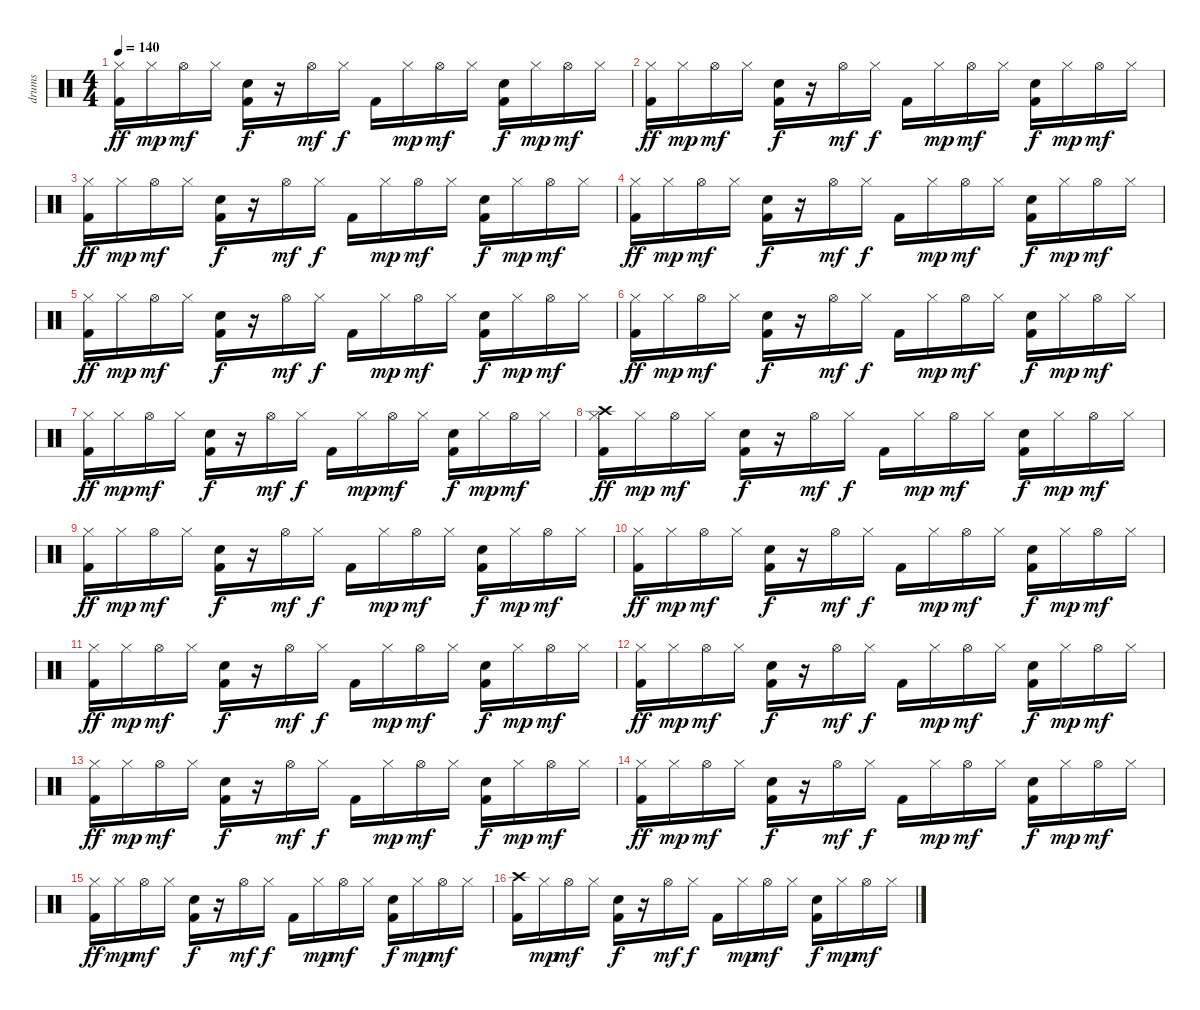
\track ("drums" "drums") {instrument percussion}
\staff {score}
\articulation defaults
\ts (4 4)
\tempo 140
\clef neutral
\ks c
("Kick (hit) 2" "Hi-Hat (closed)").16{dy ff} "Hi-Hat (closed)".16{dy mp} "Hi-Hat (open)".16{dy mf} "Hi-Hat (closed)".16 ("Kick (hit) 2" "Hand Clap (hit)").16{dy f} r.16 "Hi-Hat (open)".16{dy mf} "Hi-Hat (closed)".16{dy f} "Kick (hit) 2".16 "Hi-Hat (closed)".16{dy mp} "Hi-Hat (open)".16{dy mf} "Hi-Hat (closed)".16 ("Kick (hit) 2" "Hand Clap (hit)").16{dy f} "Hi-Hat (closed)".16{dy mp} "Hi-Hat (open)".16{dy mf} "Hi-Hat (closed)".16 |
("Kick (hit) 2" "Hi-Hat (closed)").16{dy ff} "Hi-Hat (closed)".16{dy mp} "Hi-Hat (open)".16{dy mf} "Hi-Hat (closed)".16 ("Kick (hit) 2" "Hand Clap (hit)").16{dy f} r.16 "Hi-Hat (open)".16{dy mf} "Hi-Hat (closed)".16{dy f} "Kick (hit) 2".16 "Hi-Hat (closed)".16{dy mp} "Hi-Hat (open)".16{dy mf} "Hi-Hat (closed)".16 ("Kick (hit) 2" "Hand Clap (hit)").16{dy f} "Hi-Hat (closed)".16{dy mp} "Hi-Hat (open)".16{dy mf} "Hi-Hat (closed)".16 |
("Kick (hit) 2" "Hi-Hat (closed)").16{dy ff} "Hi-Hat (closed)".16{dy mp} "Hi-Hat (open)".16{dy mf} "Hi-Hat (closed)".16 ("Kick (hit) 2" "Hand Clap (hit)").16{dy f} r.16 "Hi-Hat (open)".16{dy mf} "Hi-Hat (closed)".16{dy f} "Kick (hit) 2".16 "Hi-Hat (closed)".16{dy mp} "Hi-Hat (open)".16{dy mf} "Hi-Hat (closed)".16 ("Kick (hit) 2" "Hand Clap (hit)").16{dy f} "Hi-Hat (closed)".16{dy mp} "Hi-Hat (open)".16{dy mf} "Hi-Hat (closed)".16 |
("Kick (hit) 2" "Hi-Hat (closed)").16{dy ff} "Hi-Hat (closed)".16{dy mp} "Hi-Hat (open)".16{dy mf} "Hi-Hat (closed)".16 ("Kick (hit) 2" "Hand Clap (hit)").16{dy f} r.16 "Hi-Hat (open)".16{dy mf} "Hi-Hat (closed)".16{dy f} "Kick (hit) 2".16 "Hi-Hat (closed)".16{dy mp} "Hi-Hat (open)".16{dy mf} "Hi-Hat (closed)".16 ("Kick (hit) 2" "Hand Clap (hit)").16{dy f} "Hi-Hat (closed)".16{dy mp} "Hi-Hat (open)".16{dy mf} "Hi-Hat (closed)".16 |
("Kick (hit) 2" "Hi-Hat (closed)").16{dy ff} "Hi-Hat (closed)".16{dy mp} "Hi-Hat (open)".16{dy mf} "Hi-Hat (closed)".16 ("Kick (hit) 2" "Hand Clap (hit)").16{dy f} r.16 "Hi-Hat (open)".16{dy mf} "Hi-Hat (closed)".16{dy f} "Kick (hit) 2".16 "Hi-Hat (closed)".16{dy mp} "Hi-Hat (open)".16{dy mf} "Hi-Hat (closed)".16 ("Kick (hit) 2" "Hand Clap (hit)").16{dy f} "Hi-Hat (closed)".16{dy mp} "Hi-Hat (open)".16{dy mf} "Hi-Hat (closed)".16 |
("Kick (hit) 2" "Hi-Hat (closed)").16{dy ff} "Hi-Hat (closed)".16{dy mp} "Hi-Hat (open)".16{dy mf} "Hi-Hat (closed)".16 ("Kick (hit) 2" "Hand Clap (hit)").16{dy f} r.16 "Hi-Hat (open)".16{dy mf} "Hi-Hat (closed)".16{dy f} "Kick (hit) 2".16 "Hi-Hat (closed)".16{dy mp} "Hi-Hat (open)".16{dy mf} "Hi-Hat (closed)".16 ("Kick (hit) 2" "Hand Clap (hit)").16{dy f} "Hi-Hat (closed)".16{dy mp} "Hi-Hat (open)".16{dy mf} "Hi-Hat (closed)".16 |
("Kick (hit) 2" "Hi-Hat (closed)").16{dy ff} "Hi-Hat (closed)".16{dy mp} "Hi-Hat (open)".16{dy mf} "Hi-Hat (closed)".16 ("Kick (hit) 2" "Hand Clap (hit)").16{dy f} r.16 "Hi-Hat (open)".16{dy mf} "Hi-Hat (closed)".16{dy f} "Kick (hit) 2".16 "Hi-Hat (closed)".16{dy mp} "Hi-Hat (open)".16{dy mf} "Hi-Hat (closed)".16 ("Kick (hit) 2" "Hand Clap (hit)").16{dy f} "Hi-Hat (closed)".16{dy mp} "Hi-Hat (open)".16{dy mf} "Hi-Hat (closed)".16 |
("Kick (hit) 2" "Crash high (hit)" "Hi-Hat (closed)").16{dy ff} "Hi-Hat (closed)".16{dy mp} "Hi-Hat (open)".16{dy mf} "Hi-Hat (closed)".16 ("Kick (hit) 2" "Hand Clap (hit)").16{dy f} r.16 "Hi-Hat (open)".16{dy mf} "Hi-Hat (closed)".16{dy f} "Kick (hit) 2".16 "Hi-Hat (closed)".16{dy mp} "Hi-Hat (open)".16{dy mf} "Hi-Hat (closed)".16 ("Kick (hit) 2" "Hand Clap (hit)").16{dy f} "Hi-Hat (closed)".16{dy mp} "Hi-Hat (open)".16{dy mf} "Hi-Hat (closed)".16 |
("Kick (hit) 2" "Hi-Hat (closed)").16{dy ff} "Hi-Hat (closed)".16{dy mp} "Hi-Hat (open)".16{dy mf} "Hi-Hat (closed)".16 ("Kick (hit) 2" "Hand Clap (hit)").16{dy f} r.16 "Hi-Hat (open)".16{dy mf} "Hi-Hat (closed)".16{dy f} "Kick (hit) 2".16 "Hi-Hat (closed)".16{dy mp} "Hi-Hat (open)".16{dy mf} "Hi-Hat (closed)".16 ("Kick (hit) 2" "Hand Clap (hit)").16{dy f} "Hi-Hat (closed)".16{dy mp} "Hi-Hat (open)".16{dy mf} "Hi-Hat (closed)".16 |
("Kick (hit) 2" "Hi-Hat (closed)").16{dy ff} "Hi-Hat (closed)".16{dy mp} "Hi-Hat (open)".16{dy mf} "Hi-Hat (closed)".16 ("Kick (hit) 2" "Hand Clap (hit)").16{dy f} r.16 "Hi-Hat (open)".16{dy mf} "Hi-Hat (closed)".16{dy f} "Kick (hit) 2".16 "Hi-Hat (closed)".16{dy mp} "Hi-Hat (open)".16{dy mf} "Hi-Hat (closed)".16 ("Kick (hit) 2" "Hand Clap (hit)").16{dy f} "Hi-Hat (closed)".16{dy mp} "Hi-Hat (open)".16{dy mf} "Hi-Hat (closed)".16 |
("Kick (hit) 2" "Hi-Hat (closed)").16{dy ff} "Hi-Hat (closed)".16{dy mp} "Hi-Hat (open)".16{dy mf} "Hi-Hat (closed)".16 ("Kick (hit) 2" "Hand Clap (hit)").16{dy f} r.16 "Hi-Hat (open)".16{dy mf} "Hi-Hat (closed)".16{dy f} "Kick (hit) 2".16 "Hi-Hat (closed)".16{dy mp} "Hi-Hat (open)".16{dy mf} "Hi-Hat (closed)".16 ("Kick (hit) 2" "Hand Clap (hit)").16{dy f} "Hi-Hat (closed)".16{dy mp} "Hi-Hat (open)".16{dy mf} "Hi-Hat (closed)".16 |
("Kick (hit) 2" "Hi-Hat (closed)").16{dy ff} "Hi-Hat (closed)".16{dy mp} "Hi-Hat (open)".16{dy mf} "Hi-Hat (closed)".16 ("Kick (hit) 2" "Hand Clap (hit)").16{dy f} r.16 "Hi-Hat (open)".16{dy mf} "Hi-Hat (closed)".16{dy f} "Kick (hit) 2".16 "Hi-Hat (closed)".16{dy mp} "Hi-Hat (open)".16{dy mf} "Hi-Hat (closed)".16 ("Kick (hit) 2" "Hand Clap (hit)").16{dy f} "Hi-Hat (closed)".16{dy mp} "Hi-Hat (open)".16{dy mf} "Hi-Hat (closed)".16 |
("Kick (hit) 2" "Hi-Hat (closed)").16{dy ff} "Hi-Hat (closed)".16{dy mp} "Hi-Hat (open)".16{dy mf} "Hi-Hat (closed)".16 ("Kick (hit) 2" "Hand Clap (hit)").16{dy f} r.16 "Hi-Hat (open)".16{dy mf} "Hi-Hat (closed)".16{dy f} "Kick (hit) 2".16 "Hi-Hat (closed)".16{dy mp} "Hi-Hat (open)".16{dy mf} "Hi-Hat (closed)".16 ("Kick (hit) 2" "Hand Clap (hit)").16{dy f} "Hi-Hat (closed)".16{dy mp} "Hi-Hat (open)".16{dy mf} "Hi-Hat (closed)".16 |
("Kick (hit) 2" "Hi-Hat (closed)").16{dy ff} "Hi-Hat (closed)".16{dy mp} "Hi-Hat (open)".16{dy mf} "Hi-Hat (closed)".16 ("Kick (hit) 2" "Hand Clap (hit)").16{dy f} r.16 "Hi-Hat (open)".16{dy mf} "Hi-Hat (closed)".16{dy f} "Kick (hit) 2".16 "Hi-Hat (closed)".16{dy mp} "Hi-Hat (open)".16{dy mf} "Hi-Hat (closed)".16 ("Kick (hit) 2" "Hand Clap (hit)").16{dy f} "Hi-Hat (closed)".16{dy mp} "Hi-Hat (open)".16{dy mf} "Hi-Hat (closed)".16 |
("Kick (hit) 2" "Hi-Hat (closed)").16{dy ff} "Hi-Hat (closed)".16{dy mp} "Hi-Hat (open)".16{dy mf} "Hi-Hat (closed)".16 ("Kick (hit) 2" "Hand Clap (hit)").16{dy f} r.16 "Hi-Hat (open)".16{dy mf} "Hi-Hat (closed)".16{dy f} "Kick (hit) 2".16 "Hi-Hat (closed)".16{dy mp} "Hi-Hat (open)".16{dy mf} "Hi-Hat (closed)".16 ("Kick (hit) 2" "Hand Clap (hit)").16{dy f} "Hi-Hat (closed)".16{dy mp} "Hi-Hat (open)".16{dy mf} "Hi-Hat (closed)".16 |
("Kick (hit) 2" "Crash high (hit)").16 "Hi-Hat (closed)".16{dy mp} "Hi-Hat (open)".16{dy mf} "Hi-Hat (closed)".16 ("Kick (hit) 2" "Hand Clap (hit)").16{dy f} r.16 "Hi-Hat (open)".16{dy mf} "Hi-Hat (closed)".16{dy f} "Kick (hit) 2".16 "Hi-Hat (closed)".16{dy mp} "Hi-Hat (open)".16{dy mf} "Hi-Hat (closed)".16 ("Kick (hit) 2" "Hand Clap (hit)").16{dy f} "Hi-Hat (closed)".16{dy mp} "Hi-Hat (open)".16{dy mf} "Hi-Hat (closed)".16
